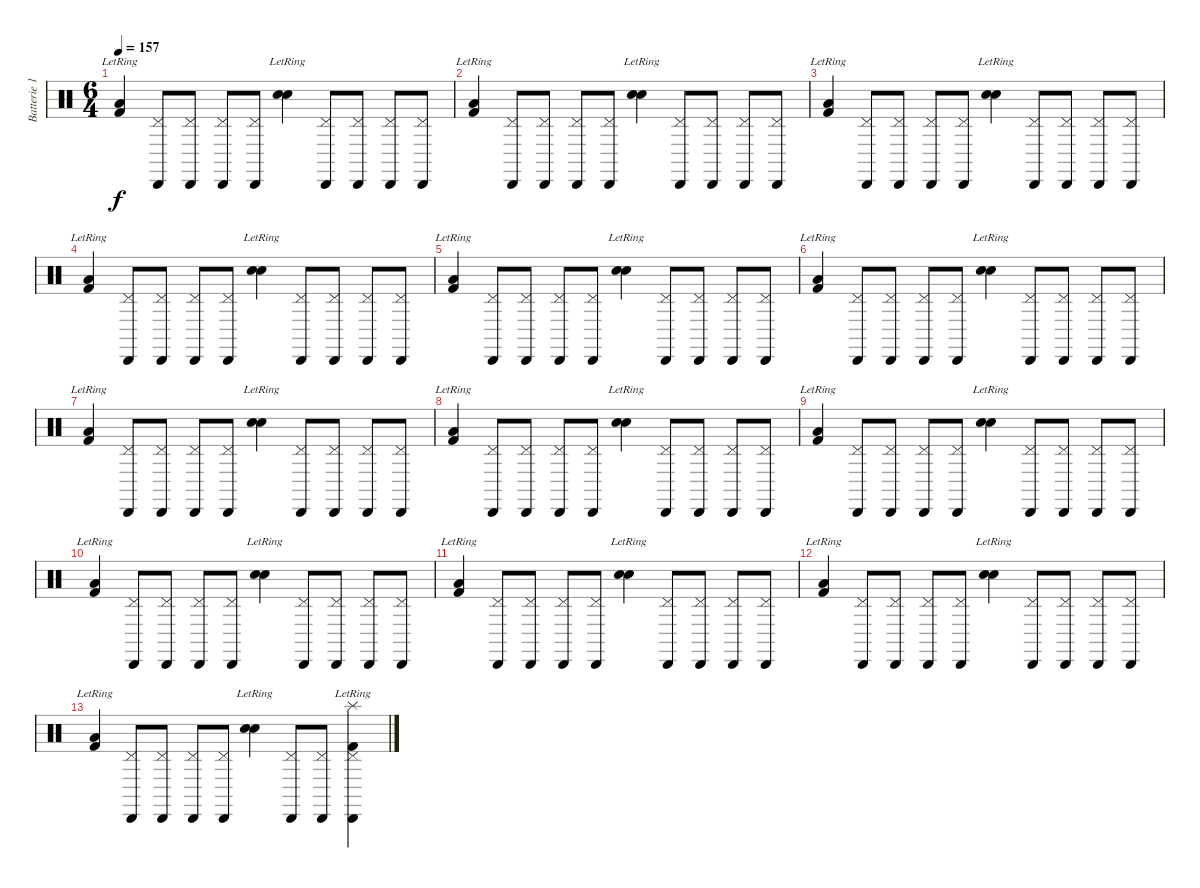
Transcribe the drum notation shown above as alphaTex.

\track ("Batterie 1" "Batterie 1") {instrument percussion}
\staff {score}
\articulation defaults
\ts (6 4)
\tempo 157
\clef neutral
\ks c
("Kick (hit) 2"{lr} "Low Floor Tom (hit)").4{dy f} ("Pedal Hi-Hat (hit)" "Cabasa (hit)").8 ("Pedal Hi-Hat (hit)" "Cabasa (hit)").8 ("Pedal Hi-Hat (hit)" "Cabasa (hit)").8 ("Pedal Hi-Hat (hit)" "Cabasa (hit)").8 ("Snare (hit) 2"{lr} "Electric Snare (hit)").4 ("Pedal Hi-Hat (hit)" "Cabasa (hit)").8 ("Pedal Hi-Hat (hit)" "Cabasa (hit)").8 ("Pedal Hi-Hat (hit)" "Cabasa (hit)").8 ("Pedal Hi-Hat (hit)" "Cabasa (hit)").8 |
("Kick (hit) 2"{lr} "Low Floor Tom (hit)").4 ("Pedal Hi-Hat (hit)" "Cabasa (hit)").8 ("Pedal Hi-Hat (hit)" "Cabasa (hit)").8 ("Pedal Hi-Hat (hit)" "Cabasa (hit)").8 ("Pedal Hi-Hat (hit)" "Cabasa (hit)").8 ("Snare (hit) 2"{lr} "Electric Snare (hit)").4 ("Pedal Hi-Hat (hit)" "Cabasa (hit)").8 ("Pedal Hi-Hat (hit)" "Cabasa (hit)").8 ("Pedal Hi-Hat (hit)" "Cabasa (hit)").8 ("Pedal Hi-Hat (hit)" "Cabasa (hit)").8 |
("Kick (hit) 2"{lr} "Low Floor Tom (hit)").4 ("Pedal Hi-Hat (hit)" "Cabasa (hit)").8 ("Pedal Hi-Hat (hit)" "Cabasa (hit)").8 ("Pedal Hi-Hat (hit)" "Cabasa (hit)").8 ("Pedal Hi-Hat (hit)" "Cabasa (hit)").8 ("Snare (hit) 2"{lr} "Electric Snare (hit)").4 ("Pedal Hi-Hat (hit)" "Cabasa (hit)").8 ("Pedal Hi-Hat (hit)" "Cabasa (hit)").8 ("Pedal Hi-Hat (hit)" "Cabasa (hit)").8 ("Pedal Hi-Hat (hit)" "Cabasa (hit)").8 |
("Kick (hit) 2"{lr} "Low Floor Tom (hit)").4 ("Pedal Hi-Hat (hit)" "Cabasa (hit)").8 ("Pedal Hi-Hat (hit)" "Cabasa (hit)").8 ("Pedal Hi-Hat (hit)" "Cabasa (hit)").8 ("Pedal Hi-Hat (hit)" "Cabasa (hit)").8 ("Snare (hit) 2"{lr} "Electric Snare (hit)").4 ("Pedal Hi-Hat (hit)" "Cabasa (hit)").8 ("Pedal Hi-Hat (hit)" "Cabasa (hit)").8 ("Pedal Hi-Hat (hit)" "Cabasa (hit)").8 ("Pedal Hi-Hat (hit)" "Cabasa (hit)").8 |
("Kick (hit) 2"{lr} "Low Floor Tom (hit)").4 ("Pedal Hi-Hat (hit)" "Cabasa (hit)").8 ("Pedal Hi-Hat (hit)" "Cabasa (hit)").8 ("Pedal Hi-Hat (hit)" "Cabasa (hit)").8 ("Pedal Hi-Hat (hit)" "Cabasa (hit)").8 ("Snare (hit) 2"{lr} "Electric Snare (hit)").4 ("Pedal Hi-Hat (hit)" "Cabasa (hit)").8 ("Pedal Hi-Hat (hit)" "Cabasa (hit)").8 ("Pedal Hi-Hat (hit)" "Cabasa (hit)").8 ("Pedal Hi-Hat (hit)" "Cabasa (hit)").8 |
("Kick (hit) 2"{lr} "Low Floor Tom (hit)").4 ("Pedal Hi-Hat (hit)" "Cabasa (hit)").8 ("Pedal Hi-Hat (hit)" "Cabasa (hit)").8 ("Pedal Hi-Hat (hit)" "Cabasa (hit)").8 ("Pedal Hi-Hat (hit)" "Cabasa (hit)").8 ("Snare (hit) 2"{lr} "Electric Snare (hit)").4 ("Pedal Hi-Hat (hit)" "Cabasa (hit)").8 ("Pedal Hi-Hat (hit)" "Cabasa (hit)").8 ("Pedal Hi-Hat (hit)" "Cabasa (hit)").8 ("Pedal Hi-Hat (hit)" "Cabasa (hit)").8 |
("Kick (hit) 2"{lr} "Low Floor Tom (hit)").4 ("Pedal Hi-Hat (hit)" "Cabasa (hit)").8 ("Pedal Hi-Hat (hit)" "Cabasa (hit)").8 ("Pedal Hi-Hat (hit)" "Cabasa (hit)").8 ("Pedal Hi-Hat (hit)" "Cabasa (hit)").8 ("Snare (hit) 2"{lr} "Electric Snare (hit)").4 ("Pedal Hi-Hat (hit)" "Cabasa (hit)").8 ("Pedal Hi-Hat (hit)" "Cabasa (hit)").8 ("Pedal Hi-Hat (hit)" "Cabasa (hit)").8 ("Pedal Hi-Hat (hit)" "Cabasa (hit)").8 |
("Kick (hit) 2"{lr} "Low Floor Tom (hit)").4 ("Pedal Hi-Hat (hit)" "Cabasa (hit)").8 ("Pedal Hi-Hat (hit)" "Cabasa (hit)").8 ("Pedal Hi-Hat (hit)" "Cabasa (hit)").8 ("Pedal Hi-Hat (hit)" "Cabasa (hit)").8 ("Snare (hit) 2"{lr} "Electric Snare (hit)").4 ("Pedal Hi-Hat (hit)" "Cabasa (hit)").8 ("Pedal Hi-Hat (hit)" "Cabasa (hit)").8 ("Pedal Hi-Hat (hit)" "Cabasa (hit)").8 ("Pedal Hi-Hat (hit)" "Cabasa (hit)").8 |
("Kick (hit) 2"{lr} "Low Floor Tom (hit)").4 ("Pedal Hi-Hat (hit)" "Cabasa (hit)").8 ("Pedal Hi-Hat (hit)" "Cabasa (hit)").8 ("Pedal Hi-Hat (hit)" "Cabasa (hit)").8 ("Pedal Hi-Hat (hit)" "Cabasa (hit)").8 ("Snare (hit) 2"{lr} "Electric Snare (hit)").4 ("Pedal Hi-Hat (hit)" "Cabasa (hit)").8 ("Pedal Hi-Hat (hit)" "Cabasa (hit)").8 ("Pedal Hi-Hat (hit)" "Cabasa (hit)").8 ("Pedal Hi-Hat (hit)" "Cabasa (hit)").8 |
("Kick (hit) 2"{lr} "Low Floor Tom (hit)").4 ("Pedal Hi-Hat (hit)" "Cabasa (hit)").8 ("Pedal Hi-Hat (hit)" "Cabasa (hit)").8 ("Pedal Hi-Hat (hit)" "Cabasa (hit)").8 ("Pedal Hi-Hat (hit)" "Cabasa (hit)").8 ("Snare (hit) 2"{lr} "Electric Snare (hit)").4 ("Pedal Hi-Hat (hit)" "Cabasa (hit)").8 ("Pedal Hi-Hat (hit)" "Cabasa (hit)").8 ("Pedal Hi-Hat (hit)" "Cabasa (hit)").8 ("Pedal Hi-Hat (hit)" "Cabasa (hit)").8 |
("Kick (hit) 2"{lr} "Low Floor Tom (hit)").4 ("Pedal Hi-Hat (hit)" "Cabasa (hit)").8 ("Pedal Hi-Hat (hit)" "Cabasa (hit)").8 ("Pedal Hi-Hat (hit)" "Cabasa (hit)").8 ("Pedal Hi-Hat (hit)" "Cabasa (hit)").8 ("Snare (hit) 2"{lr} "Electric Snare (hit)").4 ("Pedal Hi-Hat (hit)" "Cabasa (hit)").8 ("Pedal Hi-Hat (hit)" "Cabasa (hit)").8 ("Pedal Hi-Hat (hit)" "Cabasa (hit)").8 ("Pedal Hi-Hat (hit)" "Cabasa (hit)").8 |
("Kick (hit) 2"{lr} "Low Floor Tom (hit)").4 ("Pedal Hi-Hat (hit)" "Cabasa (hit)").8 ("Pedal Hi-Hat (hit)" "Cabasa (hit)").8 ("Pedal Hi-Hat (hit)" "Cabasa (hit)").8 ("Pedal Hi-Hat (hit)" "Cabasa (hit)").8 ("Snare (hit) 2"{lr} "Electric Snare (hit)").4 ("Pedal Hi-Hat (hit)" "Cabasa (hit)").8 ("Pedal Hi-Hat (hit)" "Cabasa (hit)").8 ("Pedal Hi-Hat (hit)" "Cabasa (hit)").8 ("Pedal Hi-Hat (hit)" "Cabasa (hit)").8 |
("Kick (hit) 2"{lr} "Low Floor Tom (hit)").4 ("Pedal Hi-Hat (hit)" "Cabasa (hit)").8 ("Pedal Hi-Hat (hit)" "Cabasa (hit)").8 ("Pedal Hi-Hat (hit)" "Cabasa (hit)").8 ("Pedal Hi-Hat (hit)" "Cabasa (hit)").8 ("Snare (hit) 2"{lr} "Electric Snare (hit)").4 ("Pedal Hi-Hat (hit)" "Cabasa (hit)").8 ("Pedal Hi-Hat (hit)" "Cabasa (hit)").8 ("Pedal Hi-Hat (hit)"{lr} "Cabasa (hit)"{lr} "Splash (hit)"{lr} "Kick (hit) 2"{lr}).4
